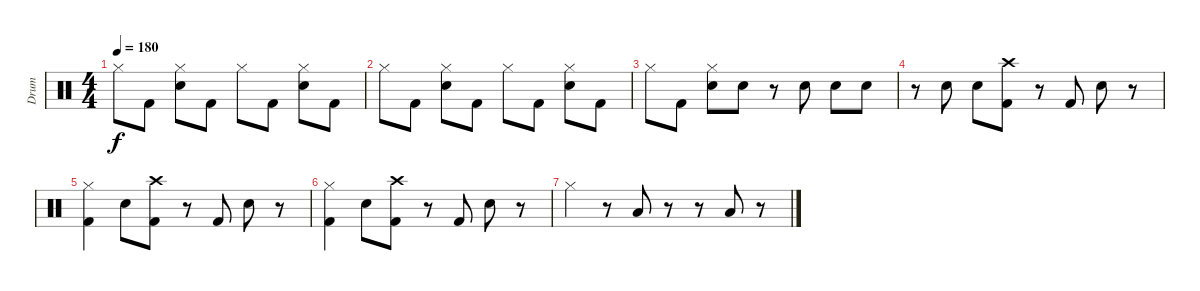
\track ("Drum" "Drum") {instrument percussion}
\staff {score}
\articulation defaults
\ts (4 4)
\tempo 180
\clef neutral
\ks c "Hi-Hat (closed)".8{dy f} "Kick (hit) 2".8
("Hi-Hat (closed)" "Snare (hit) 2").8 "Kick (hit) 2".8 "Hi-Hat (closed)".8 "Kick (hit) 2".8 ("Hi-Hat (closed)" "Snare (hit) 2").8 "Kick (hit) 2".8 |
"Hi-Hat (closed)".8 "Kick (hit) 2".8 ("Hi-Hat (closed)" "Snare (hit) 2").8 "Kick (hit) 2".8 "Hi-Hat (closed)".8 "Kick (hit) 2".8 ("Hi-Hat (closed)" "Snare (hit) 2").8 "Kick (hit) 2".8 |
"Hi-Hat (closed)".8 "Kick (hit) 2".8 ("Hi-Hat (closed)" "Snare (hit) 2").8 "Snare (hit) 2".8 r.8 "Snare (hit) 2".8 "Snare (hit) 2".8 "Snare (hit) 2".8 |
r.8 "Snare (hit) 2".8 "Snare (hit) 2".8 ("Crash high (hit)" "Kick (hit) 2").8 r.8 "Kick (hit) 2".8 "Snare (hit) 2".8 r.8 |
("Hi-Hat (closed)" "Kick (hit) 2").4 "Snare (hit) 2".8 ("Crash high (hit)" "Kick (hit) 2").8 r.8 "Kick (hit) 2".8 "Snare (hit) 2".8 r.8 |
("Hi-Hat (closed)" "Kick (hit) 2").4 "Snare (hit) 2".8 ("Crash high (hit)" "Kick (hit) 2").8 r.8 "Kick (hit) 2".8 "Snare (hit) 2".8 r.8 |
"Hi-Hat (closed)".4 r.8 "Low Tom (hit)".8 r.8 r.8 "Low Tom (hit)".8 r.8
